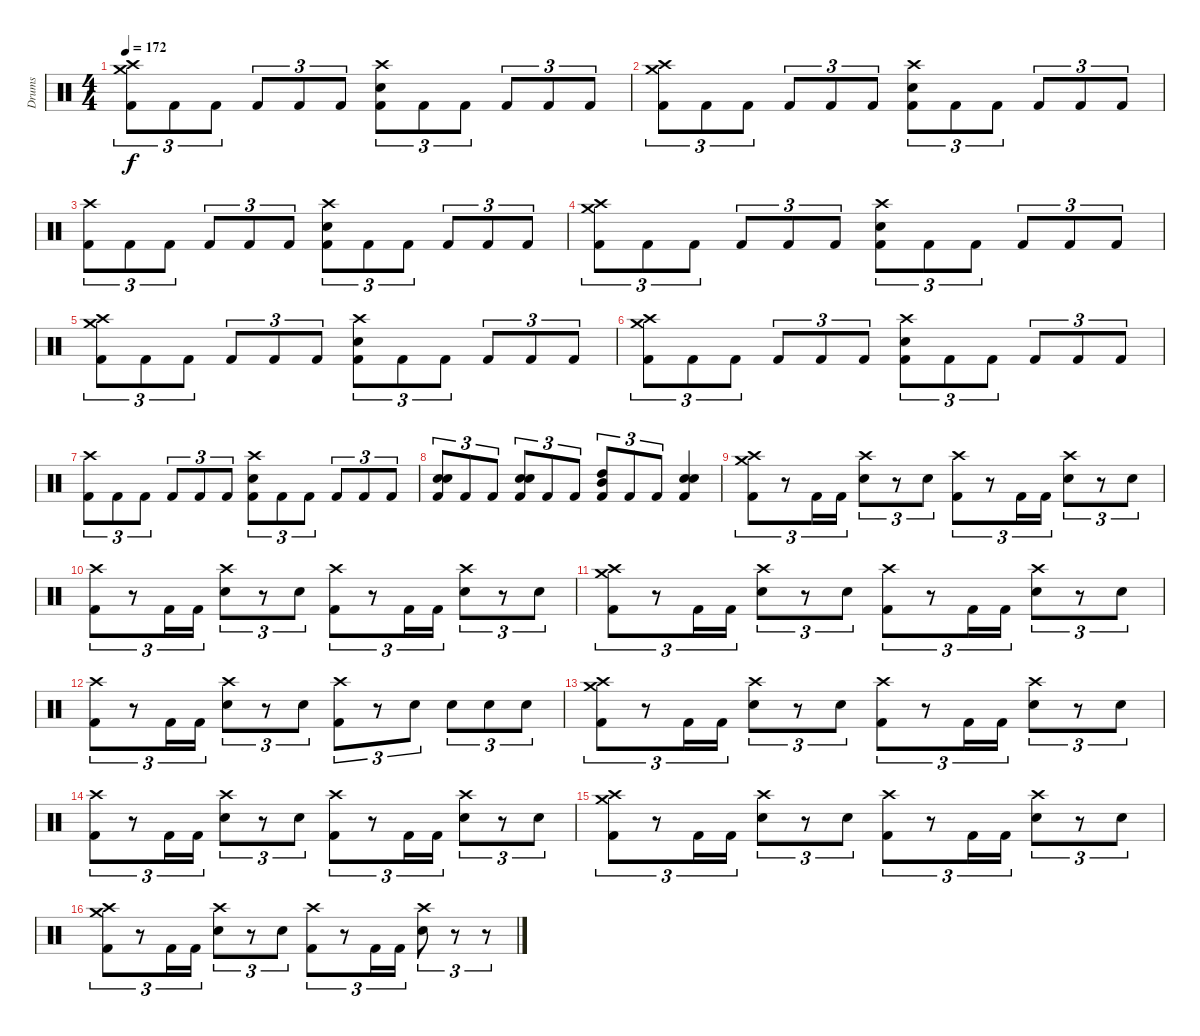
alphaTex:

\track ("Drums" "Drums") {instrument percussion}
\staff {score}
\articulation defaults
\ts (4 4)
\tempo 172
\clef neutral
\ks c
("Crash medium (hit)" "Crash high (hit)" "Kick (hit) 2").8{tu (3 2) dy f} "Kick (hit) 2".8{tu (3 2)} "Kick (hit) 2".8{tu (3 2)} "Kick (hit) 2".8{tu (3 2)} "Kick (hit) 2".8{tu (3 2)} "Kick (hit) 2".8{tu (3 2)} ("Crash high (hit)" "Snare (hit) 2" "Kick (hit) 2").8{tu (3 2)} "Kick (hit) 2".8{tu (3 2)} "Kick (hit) 2".8{tu (3 2)} "Kick (hit) 2".8{tu (3 2)} "Kick (hit) 2".8{tu (3 2)} "Kick (hit) 2".8{tu (3 2)} |
("Crash medium (hit)" "Crash high (hit)" "Kick (hit) 2").8{tu (3 2)} "Kick (hit) 2".8{tu (3 2)} "Kick (hit) 2".8{tu (3 2)} "Kick (hit) 2".8{tu (3 2)} "Kick (hit) 2".8{tu (3 2)} "Kick (hit) 2".8{tu (3 2)} ("Crash high (hit)" "Snare (hit) 2" "Kick (hit) 2").8{tu (3 2)} "Kick (hit) 2".8{tu (3 2)} "Kick (hit) 2".8{tu (3 2)} "Kick (hit) 2".8{tu (3 2)} "Kick (hit) 2".8{tu (3 2)} "Kick (hit) 2".8{tu (3 2)} |
("Crash high (hit)" "Kick (hit) 2").8{tu (3 2)} "Kick (hit) 2".8{tu (3 2)} "Kick (hit) 2".8{tu (3 2)} "Kick (hit) 2".8{tu (3 2)} "Kick (hit) 2".8{tu (3 2)} "Kick (hit) 2".8{tu (3 2)} ("Crash high (hit)" "Snare (hit) 2" "Kick (hit) 2").8{tu (3 2)} "Kick (hit) 2".8{tu (3 2)} "Kick (hit) 2".8{tu (3 2)} "Kick (hit) 2".8{tu (3 2)} "Kick (hit) 2".8{tu (3 2)} "Kick (hit) 2".8{tu (3 2)} |
("Crash medium (hit)" "Crash high (hit)" "Kick (hit) 2").8{tu (3 2)} "Kick (hit) 2".8{tu (3 2)} "Kick (hit) 2".8{tu (3 2)} "Kick (hit) 2".8{tu (3 2)} "Kick (hit) 2".8{tu (3 2)} "Kick (hit) 2".8{tu (3 2)} ("Crash high (hit)" "Snare (hit) 2" "Kick (hit) 2").8{tu (3 2)} "Kick (hit) 2".8{tu (3 2)} "Kick (hit) 2".8{tu (3 2)} "Kick (hit) 2".8{tu (3 2)} "Kick (hit) 2".8{tu (3 2)} "Kick (hit) 2".8{tu (3 2)} |
("Crash medium (hit)" "Crash high (hit)" "Kick (hit) 2").8{tu (3 2)} "Kick (hit) 2".8{tu (3 2)} "Kick (hit) 2".8{tu (3 2)} "Kick (hit) 2".8{tu (3 2)} "Kick (hit) 2".8{tu (3 2)} "Kick (hit) 2".8{tu (3 2)} ("Crash high (hit)" "Snare (hit) 2" "Kick (hit) 2").8{tu (3 2)} "Kick (hit) 2".8{tu (3 2)} "Kick (hit) 2".8{tu (3 2)} "Kick (hit) 2".8{tu (3 2)} "Kick (hit) 2".8{tu (3 2)} "Kick (hit) 2".8{tu (3 2)} |
("Crash medium (hit)" "Crash high (hit)" "Kick (hit) 2").8{tu (3 2)} "Kick (hit) 2".8{tu (3 2)} "Kick (hit) 2".8{tu (3 2)} "Kick (hit) 2".8{tu (3 2)} "Kick (hit) 2".8{tu (3 2)} "Kick (hit) 2".8{tu (3 2)} ("Crash high (hit)" "Snare (hit) 2" "Kick (hit) 2").8{tu (3 2)} "Kick (hit) 2".8{tu (3 2)} "Kick (hit) 2".8{tu (3 2)} "Kick (hit) 2".8{tu (3 2)} "Kick (hit) 2".8{tu (3 2)} "Kick (hit) 2".8{tu (3 2)} |
("Crash high (hit)" "Kick (hit) 2").8{tu (3 2)} "Kick (hit) 2".8{tu (3 2)} "Kick (hit) 2".8{tu (3 2)} "Kick (hit) 2".8{tu (3 2)} "Kick (hit) 2".8{tu (3 2)} "Kick (hit) 2".8{tu (3 2)} ("Crash high (hit)" "Snare (hit) 2" "Kick (hit) 2").8{tu (3 2)} "Kick (hit) 2".8{tu (3 2)} "Kick (hit) 2".8{tu (3 2)} "Kick (hit) 2".8{tu (3 2)} "Kick (hit) 2".8{tu (3 2)} "Kick (hit) 2".8{tu (3 2)} |
("Snare (hit) 2" "Snare (hit) 2" "Kick (hit) 2").8{tu (3 2)} "Kick (hit) 2".8{tu (3 2)} "Kick (hit) 2".8{tu (3 2)} ("Snare (hit) 2" "Snare (hit) 2" "Kick (hit) 2").8{tu (3 2)} "Kick (hit) 2".8{tu (3 2)} "Kick (hit) 2".8{tu (3 2)} ("High Tom (hit)" "Mid Tom (hit)" "Kick (hit) 2").8{tu (3 2)} "Kick (hit) 2".8{tu (3 2)} "Kick (hit) 2".8{tu (3 2)} ("Snare (hit) 2" "Snare (hit) 2" "Kick (hit) 2").4 |
("Crash medium (hit)" "Crash high (hit)" "Kick (hit) 2").8{tu (3 2)} r.8{tu (3 2)} "Kick (hit) 2".16{tu (3 2)} "Kick (hit) 2".16{tu (3 2)} ("Crash high (hit)" "Snare (hit) 2").8{tu (3 2)} r.8{tu (3 2)} "Snare (hit) 2".8{tu (3 2)} ("Crash high (hit)" "Kick (hit) 2").8{tu (3 2)} r.8{tu (3 2)} "Kick (hit) 2".16{tu (3 2)} "Kick (hit) 2".16{tu (3 2)} ("Crash high (hit)" "Snare (hit) 2").8{tu (3 2)} r.8{tu (3 2)} "Snare (hit) 2".8{tu (3 2)} |
("Crash high (hit)" "Kick (hit) 2").8{tu (3 2)} r.8{tu (3 2)} "Kick (hit) 2".16{tu (3 2)} "Kick (hit) 2".16{tu (3 2)} ("Crash high (hit)" "Snare (hit) 2").8{tu (3 2)} r.8{tu (3 2)} "Snare (hit) 2".8{tu (3 2)} ("Crash high (hit)" "Kick (hit) 2").8{tu (3 2)} r.8{tu (3 2)} "Kick (hit) 2".16{tu (3 2)} "Kick (hit) 2".16{tu (3 2)} ("Crash high (hit)" "Snare (hit) 2").8{tu (3 2)} r.8{tu (3 2)} "Snare (hit) 2".8{tu (3 2)} |
("Crash medium (hit)" "Crash high (hit)" "Kick (hit) 2").8{tu (3 2)} r.8{tu (3 2)} "Kick (hit) 2".16{tu (3 2)} "Kick (hit) 2".16{tu (3 2)} ("Crash high (hit)" "Snare (hit) 2").8{tu (3 2)} r.8{tu (3 2)} "Snare (hit) 2".8{tu (3 2)} ("Crash high (hit)" "Kick (hit) 2").8{tu (3 2)} r.8{tu (3 2)} "Kick (hit) 2".16{tu (3 2)} "Kick (hit) 2".16{tu (3 2)} ("Crash high (hit)" "Snare (hit) 2").8{tu (3 2)} r.8{tu (3 2)} "Snare (hit) 2".8{tu (3 2)} |
("Crash high (hit)" "Kick (hit) 2").8{tu (3 2)} r.8{tu (3 2)} "Kick (hit) 2".16{tu (3 2)} "Kick (hit) 2".16{tu (3 2)} ("Crash high (hit)" "Snare (hit) 2").8{tu (3 2)} r.8{tu (3 2)} "Snare (hit) 2".8{tu (3 2)} ("Crash high (hit)" "Kick (hit) 2").8{tu (3 2)} r.8{tu (3 2)} "Snare (hit) 2".8{tu (3 2)} "Snare (hit) 2".8{tu (3 2)} "Snare (hit) 2".8{tu (3 2)} "Snare (hit) 2".8{tu (3 2)} |
("Crash medium (hit)" "Crash high (hit)" "Kick (hit) 2").8{tu (3 2)} r.8{tu (3 2)} "Kick (hit) 2".16{tu (3 2)} "Kick (hit) 2".16{tu (3 2)} ("Crash high (hit)" "Snare (hit) 2").8{tu (3 2)} r.8{tu (3 2)} "Snare (hit) 2".8{tu (3 2)} ("Crash high (hit)" "Kick (hit) 2").8{tu (3 2)} r.8{tu (3 2)} "Kick (hit) 2".16{tu (3 2)} "Kick (hit) 2".16{tu (3 2)} ("Crash high (hit)" "Snare (hit) 2").8{tu (3 2)} r.8{tu (3 2)} "Snare (hit) 2".8{tu (3 2)} |
("Crash high (hit)" "Kick (hit) 2").8{tu (3 2)} r.8{tu (3 2)} "Kick (hit) 2".16{tu (3 2)} "Kick (hit) 2".16{tu (3 2)} ("Crash high (hit)" "Snare (hit) 2").8{tu (3 2)} r.8{tu (3 2)} "Snare (hit) 2".8{tu (3 2)} ("Crash high (hit)" "Kick (hit) 2").8{tu (3 2)} r.8{tu (3 2)} "Kick (hit) 2".16{tu (3 2)} "Kick (hit) 2".16{tu (3 2)} ("Crash high (hit)" "Snare (hit) 2").8{tu (3 2)} r.8{tu (3 2)} "Snare (hit) 2".8{tu (3 2)} |
("Crash medium (hit)" "Crash high (hit)" "Kick (hit) 2").8{tu (3 2)} r.8{tu (3 2)} "Kick (hit) 2".16{tu (3 2)} "Kick (hit) 2".16{tu (3 2)} ("Crash high (hit)" "Snare (hit) 2").8{tu (3 2)} r.8{tu (3 2)} "Snare (hit) 2".8{tu (3 2)} ("Crash high (hit)" "Kick (hit) 2").8{tu (3 2)} r.8{tu (3 2)} "Kick (hit) 2".16{tu (3 2)} "Kick (hit) 2".16{tu (3 2)} ("Crash high (hit)" "Snare (hit) 2").8{tu (3 2)} r.8{tu (3 2)} "Snare (hit) 2".8{tu (3 2)} |
("Crash medium (hit)" "Crash high (hit)" "Kick (hit) 2").8{tu (3 2)} r.8{tu (3 2)} "Kick (hit) 2".16{tu (3 2)} "Kick (hit) 2".16{tu (3 2)} ("Crash high (hit)" "Snare (hit) 2").8{tu (3 2)} r.8{tu (3 2)} "Snare (hit) 2".8{tu (3 2)} ("Crash high (hit)" "Kick (hit) 2").8{tu (3 2)} r.8{tu (3 2)} "Kick (hit) 2".16{tu (3 2)} "Kick (hit) 2".16{tu (3 2)} ("Crash high (hit)" "Snare (hit) 2").8{tu (3 2)} r.8{tu (3 2)} r.8{tu (3 2)}
